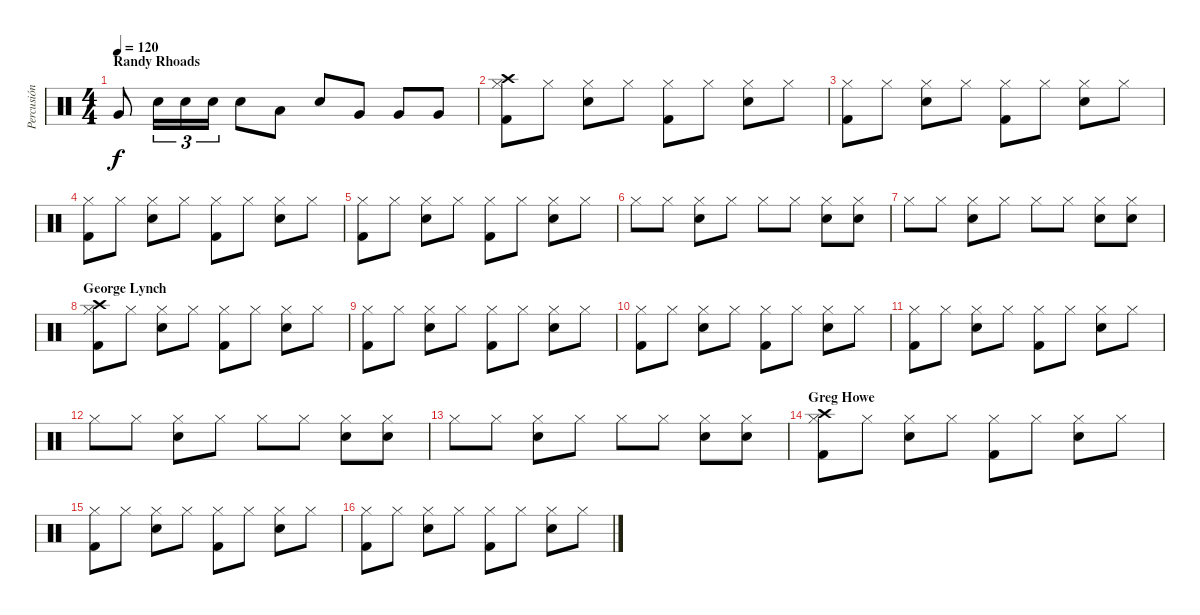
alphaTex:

\track ("Percusión" "Percusión") {instrument percussion}
\staff {score}
\articulation defaults
\ts (4 4)
\section ("" "Randy Rhoads")
\tempo 120
\clef neutral
\ks c "Very Low Tom (hit)".8{dy f} "Electric Snare (hit)".16{tu (3 2)} "Electric Snare (hit)".16{tu (3 2)} "Electric Snare (hit)".16{tu (3 2)} "Electric Snare (hit)".8 "Low Floor Tom (hit)".8 "Electric Snare (hit)".8 "Very Low Tom (hit)".8 "Very Low Tom (hit)".8 "Very Low Tom (hit)".8
|
("Kick (hit) 2" "Hi-Hat (closed)" "Crash high (hit)").8 "Hi-Hat (closed)".8 ("Electric Snare (hit)" "Hi-Hat (closed)").8 "Hi-Hat (closed)".8 ("Kick (hit) 2" "Hi-Hat (closed)").8 "Hi-Hat (closed)".8 ("Electric Snare (hit)" "Hi-Hat (closed)").8 "Hi-Hat (closed)".8 |
("Kick (hit) 2" "Hi-Hat (closed)").8 "Hi-Hat (closed)".8 ("Electric Snare (hit)" "Hi-Hat (closed)").8 "Hi-Hat (closed)".8 ("Kick (hit) 2" "Hi-Hat (closed)").8 "Hi-Hat (closed)".8 ("Electric Snare (hit)" "Hi-Hat (closed)").8 "Hi-Hat (closed)".8 |
("Kick (hit) 2" "Hi-Hat (closed)").8 "Hi-Hat (closed)".8 ("Electric Snare (hit)" "Hi-Hat (closed)").8 "Hi-Hat (closed)".8 ("Kick (hit) 2" "Hi-Hat (closed)").8 "Hi-Hat (closed)".8 ("Electric Snare (hit)" "Hi-Hat (closed)").8 "Hi-Hat (closed)".8 |
("Kick (hit) 2" "Hi-Hat (closed)").8 "Hi-Hat (closed)".8 ("Electric Snare (hit)" "Hi-Hat (closed)").8 "Hi-Hat (closed)".8 ("Kick (hit) 2" "Hi-Hat (closed)").8 "Hi-Hat (closed)".8 ("Electric Snare (hit)" "Hi-Hat (closed)").8 "Hi-Hat (closed)".8 |
"Hi-Hat (closed)".8 "Hi-Hat (closed)".8 ("Electric Snare (hit)" "Hi-Hat (closed)").8 "Hi-Hat (closed)".8 "Hi-Hat (closed)".8 "Hi-Hat (closed)".8 ("Electric Snare (hit)" "Hi-Hat (closed)").8 ("Electric Snare (hit)" "Hi-Hat (closed)").8 |
"Hi-Hat (closed)".8 "Hi-Hat (closed)".8 ("Electric Snare (hit)" "Hi-Hat (closed)").8 "Hi-Hat (closed)".8 "Hi-Hat (closed)".8 "Hi-Hat (closed)".8 ("Electric Snare (hit)" "Hi-Hat (closed)").8 ("Electric Snare (hit)" "Hi-Hat (closed)").8 |
\section ("" "George Lynch")
("Kick (hit) 2" "Hi-Hat (closed)" "Crash high (hit)").8 "Hi-Hat (closed)".8 ("Electric Snare (hit)" "Hi-Hat (closed)").8 "Hi-Hat (closed)".8 ("Kick (hit) 2" "Hi-Hat (closed)").8 "Hi-Hat (closed)".8 ("Electric Snare (hit)" "Hi-Hat (closed)").8 "Hi-Hat (closed)".8 |
("Kick (hit) 2" "Hi-Hat (closed)").8 "Hi-Hat (closed)".8 ("Electric Snare (hit)" "Hi-Hat (closed)").8 "Hi-Hat (closed)".8 ("Kick (hit) 2" "Hi-Hat (closed)").8 "Hi-Hat (closed)".8 ("Electric Snare (hit)" "Hi-Hat (closed)").8 "Hi-Hat (closed)".8 |
("Kick (hit) 2" "Hi-Hat (closed)").8 "Hi-Hat (closed)".8 ("Electric Snare (hit)" "Hi-Hat (closed)").8 "Hi-Hat (closed)".8 ("Kick (hit) 2" "Hi-Hat (closed)").8 "Hi-Hat (closed)".8 ("Electric Snare (hit)" "Hi-Hat (closed)").8 "Hi-Hat (closed)".8 |
("Kick (hit) 2" "Hi-Hat (closed)").8 "Hi-Hat (closed)".8 ("Electric Snare (hit)" "Hi-Hat (closed)").8 "Hi-Hat (closed)".8 ("Kick (hit) 2" "Hi-Hat (closed)").8 "Hi-Hat (closed)".8 ("Electric Snare (hit)" "Hi-Hat (closed)").8 "Hi-Hat (closed)".8 |
"Hi-Hat (closed)".8 "Hi-Hat (closed)".8 ("Electric Snare (hit)" "Hi-Hat (closed)").8 "Hi-Hat (closed)".8 "Hi-Hat (closed)".8 "Hi-Hat (closed)".8 ("Electric Snare (hit)" "Hi-Hat (closed)").8 ("Electric Snare (hit)" "Hi-Hat (closed)").8 |
"Hi-Hat (closed)".8 "Hi-Hat (closed)".8 ("Electric Snare (hit)" "Hi-Hat (closed)").8 "Hi-Hat (closed)".8 "Hi-Hat (closed)".8 "Hi-Hat (closed)".8 ("Electric Snare (hit)" "Hi-Hat (closed)").8 ("Electric Snare (hit)" "Hi-Hat (closed)").8 |
\section ("" "Greg Howe")
("Kick (hit) 2" "Hi-Hat (closed)" "Crash high (hit)").8 "Hi-Hat (closed)".8 ("Electric Snare (hit)" "Hi-Hat (closed)").8 "Hi-Hat (closed)".8 ("Kick (hit) 2" "Hi-Hat (closed)").8 "Hi-Hat (closed)".8 ("Electric Snare (hit)" "Hi-Hat (closed)").8 "Hi-Hat (closed)".8 |
("Kick (hit) 2" "Hi-Hat (closed)").8 "Hi-Hat (closed)".8 ("Electric Snare (hit)" "Hi-Hat (closed)").8 "Hi-Hat (closed)".8 ("Kick (hit) 2" "Hi-Hat (closed)").8 "Hi-Hat (closed)".8 ("Electric Snare (hit)" "Hi-Hat (closed)").8 "Hi-Hat (closed)".8 |
("Kick (hit) 2" "Hi-Hat (closed)").8 "Hi-Hat (closed)".8 ("Electric Snare (hit)" "Hi-Hat (closed)").8 "Hi-Hat (closed)".8 ("Kick (hit) 2" "Hi-Hat (closed)").8 "Hi-Hat (closed)".8 ("Electric Snare (hit)" "Hi-Hat (closed)").8 "Hi-Hat (closed)".8
